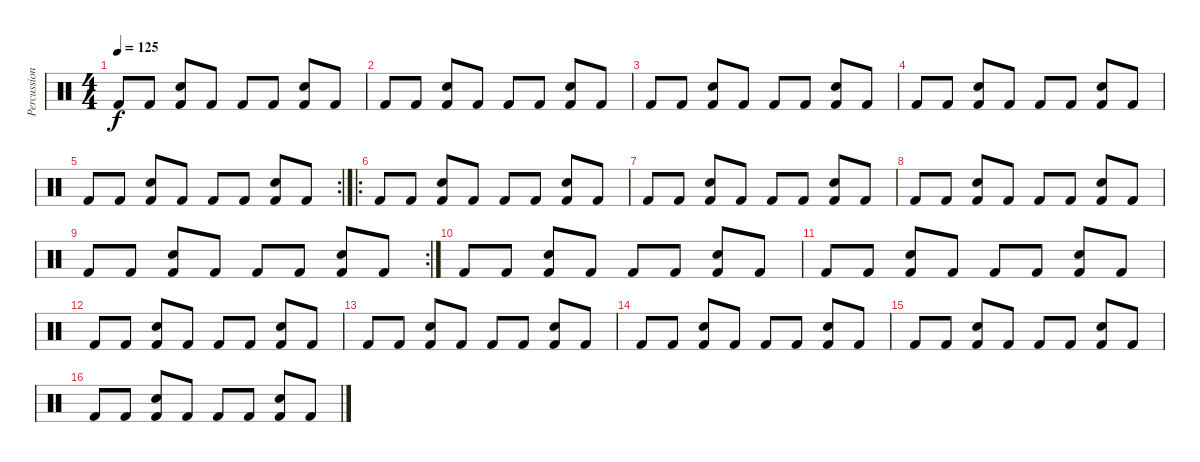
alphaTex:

\track ("Percussion" "Percussion") {instrument percussion}
\staff {score}
\articulation defaults
\ts (4 4)
\tempo 125
\clef neutral
\ks c "Kick (hit) 2".8{dy f} "Kick (hit) 2".8
("Kick (hit) 2" "Electric Snare (hit)").8 "Kick (hit) 2".8 "Kick (hit) 2".8 "Kick (hit) 2".8 ("Kick (hit) 2" "Electric Snare (hit)").8 "Kick (hit) 2".8 |
"Kick (hit) 2".8 "Kick (hit) 2".8 ("Kick (hit) 2" "Electric Snare (hit)").8 "Kick (hit) 2".8 "Kick (hit) 2".8 "Kick (hit) 2".8 ("Kick (hit) 2" "Electric Snare (hit)").8 "Kick (hit) 2".8 |
"Kick (hit) 2".8 "Kick (hit) 2".8 ("Kick (hit) 2" "Electric Snare (hit)").8 "Kick (hit) 2".8 "Kick (hit) 2".8 "Kick (hit) 2".8 ("Kick (hit) 2" "Electric Snare (hit)").8 "Kick (hit) 2".8 |
"Kick (hit) 2".8 "Kick (hit) 2".8 ("Kick (hit) 2" "Electric Snare (hit)").8 "Kick (hit) 2".8 "Kick (hit) 2".8 "Kick (hit) 2".8 ("Kick (hit) 2" "Electric Snare (hit)").8 "Kick (hit) 2".8 |
\rc 2 "Kick (hit) 2".8 "Kick (hit) 2".8
("Kick (hit) 2" "Electric Snare (hit)").8 "Kick (hit) 2".8 "Kick (hit) 2".8 "Kick (hit) 2".8 ("Kick (hit) 2" "Electric Snare (hit)").8 "Kick (hit) 2".8 |
\ro "Kick (hit) 2".8 "Kick (hit) 2".8
("Kick (hit) 2" "Electric Snare (hit)").8 "Kick (hit) 2".8 "Kick (hit) 2".8 "Kick (hit) 2".8 ("Kick (hit) 2" "Electric Snare (hit)").8 "Kick (hit) 2".8 |
"Kick (hit) 2".8 "Kick (hit) 2".8 ("Kick (hit) 2" "Electric Snare (hit)").8 "Kick (hit) 2".8 "Kick (hit) 2".8 "Kick (hit) 2".8 ("Kick (hit) 2" "Electric Snare (hit)").8 "Kick (hit) 2".8 |
"Kick (hit) 2".8 "Kick (hit) 2".8 ("Kick (hit) 2" "Electric Snare (hit)").8 "Kick (hit) 2".8 "Kick (hit) 2".8 "Kick (hit) 2".8 ("Kick (hit) 2" "Electric Snare (hit)").8 "Kick (hit) 2".8 |
\rc 2 "Kick (hit) 2".8 "Kick (hit) 2".8
("Kick (hit) 2" "Electric Snare (hit)").8 "Kick (hit) 2".8 "Kick (hit) 2".8 "Kick (hit) 2".8 ("Kick (hit) 2" "Electric Snare (hit)").8 "Kick (hit) 2".8 |
"Kick (hit) 2".8 "Kick (hit) 2".8 ("Kick (hit) 2" "Electric Snare (hit)").8 "Kick (hit) 2".8 "Kick (hit) 2".8 "Kick (hit) 2".8 ("Kick (hit) 2" "Electric Snare (hit)").8 "Kick (hit) 2".8 |
"Kick (hit) 2".8 "Kick (hit) 2".8 ("Kick (hit) 2" "Electric Snare (hit)").8 "Kick (hit) 2".8 "Kick (hit) 2".8 "Kick (hit) 2".8 ("Kick (hit) 2" "Electric Snare (hit)").8 "Kick (hit) 2".8 |
"Kick (hit) 2".8 "Kick (hit) 2".8 ("Kick (hit) 2" "Electric Snare (hit)").8 "Kick (hit) 2".8 "Kick (hit) 2".8 "Kick (hit) 2".8 ("Kick (hit) 2" "Electric Snare (hit)").8 "Kick (hit) 2".8 |
"Kick (hit) 2".8 "Kick (hit) 2".8 ("Kick (hit) 2" "Electric Snare (hit)").8 "Kick (hit) 2".8 "Kick (hit) 2".8 "Kick (hit) 2".8 ("Kick (hit) 2" "Electric Snare (hit)").8 "Kick (hit) 2".8 |
"Kick (hit) 2".8 "Kick (hit) 2".8 ("Kick (hit) 2" "Electric Snare (hit)").8 "Kick (hit) 2".8 "Kick (hit) 2".8 "Kick (hit) 2".8 ("Kick (hit) 2" "Electric Snare (hit)").8 "Kick (hit) 2".8 |
"Kick (hit) 2".8 "Kick (hit) 2".8 ("Kick (hit) 2" "Electric Snare (hit)").8 "Kick (hit) 2".8 "Kick (hit) 2".8 "Kick (hit) 2".8 ("Kick (hit) 2" "Electric Snare (hit)").8 "Kick (hit) 2".8 |
"Kick (hit) 2".8 "Kick (hit) 2".8 ("Kick (hit) 2" "Electric Snare (hit)").8 "Kick (hit) 2".8 "Kick (hit) 2".8 "Kick (hit) 2".8 ("Kick (hit) 2" "Electric Snare (hit)").8 "Kick (hit) 2".8
